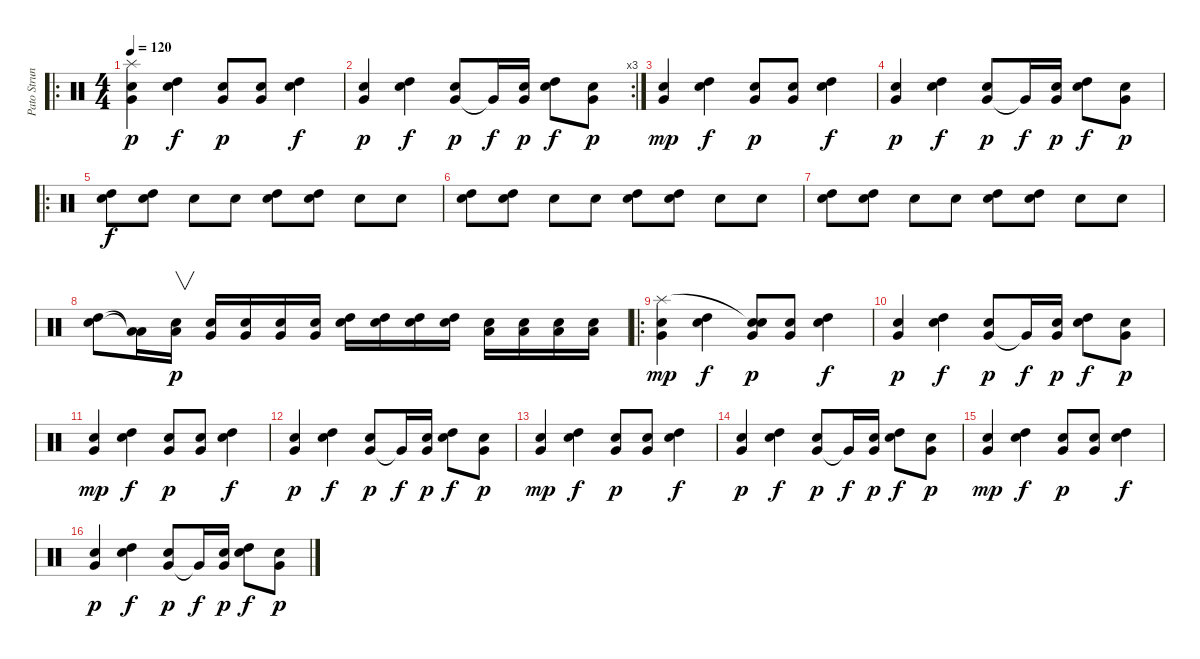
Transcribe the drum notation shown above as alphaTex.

\track ("Pato Strunz" "Pato Strun") {instrument percussion}
\staff {score}
\articulation defaults
\ro
\ts (4 4)
\tempo 120
\clef neutral
\ks c
("Very Low Tom (hit)" "Snare (hit) 2" "Splash (hit)").4{dy p} ("High Tom (hit)" "Snare (hit) 2").4{dy f} ("Very Low Tom (hit)" "Snare (hit) 2").8{dy p} ("Very Low Tom (hit)" "Snare (hit) 2").8 ("High Tom (hit)" "Snare (hit) 2").4{dy f} |
\rc 3
("Very Low Tom (hit)" "Snare (hit) 2").4{dy p} ("High Tom (hit)" "Snare (hit) 2").4{dy f} ("Very Low Tom (hit)" "Snare (hit) 2").8{dy p} "Very Low Tom (hit)"{t}.16{dy f} ("Very Low Tom (hit)" "Snare (hit) 2").16{dy p} ("High Tom (hit)" "Snare (hit) 2").8{dy f} ("Very Low Tom (hit)" "Snare (hit) 2").8{dy p} |
("Very Low Tom (hit)" "Snare (hit) 2").4{dy mp} ("High Tom (hit)" "Snare (hit) 2").4{dy f} ("Very Low Tom (hit)" "Snare (hit) 2").8{dy p} ("Very Low Tom (hit)" "Snare (hit) 2").8 ("High Tom (hit)" "Snare (hit) 2").4{dy f} |
("Very Low Tom (hit)" "Snare (hit) 2").4{dy p} ("High Tom (hit)" "Snare (hit) 2").4{dy f} ("Very Low Tom (hit)" "Snare (hit) 2").8{dy p} "Very Low Tom (hit)"{t}.16{dy f} ("Very Low Tom (hit)" "Snare (hit) 2").16{dy p} ("High Tom (hit)" "Snare (hit) 2").8{dy f} ("Very Low Tom (hit)" "Snare (hit) 2").8{dy p} |
\ro
("High Tom (hit)" "Snare (hit) 2").8{dy f} ("High Tom (hit)" "Snare (hit) 2").8 "Snare (hit)".8 "Snare (hit)".8 ("High Tom (hit)" "Snare (hit) 2").8 ("High Tom (hit)" "Snare (hit) 2").8 "Snare (hit)".8 "Snare (hit)".8 |
("High Tom (hit)" "Snare (hit) 2").8 ("High Tom (hit)" "Snare (hit) 2").8 "Snare (hit)".8 "Snare (hit)".8 ("High Tom (hit)" "Snare (hit) 2").8 ("High Tom (hit)" "Snare (hit) 2").8 "Snare (hit)".8 "Snare (hit)".8 |
("High Tom (hit)" "Snare (hit) 2").8 ("High Tom (hit)" "Snare (hit) 2").8 "Snare (hit)".8 "Snare (hit)".8 ("High Tom (hit)" "Snare (hit) 2").8 ("High Tom (hit)" "Snare (hit) 2").8 "Snare (hit)".8 "Snare (hit)".8 |
("High Tom (hit)" "Snare (hit) 2").8 ("Low Tom (hit)"{t} "Low Tom (hit)"{t}).16 ("Low Tom (hit)" "Snare (hit) 2").16{v dy p} ("Very Low Tom (hit)" "Snare (hit) 2").16 ("Very Low Tom (hit)" "Snare (hit) 2").16 ("Very Low Tom (hit)" "Snare (hit) 2").16 ("Very Low Tom (hit)" "Snare (hit) 2").16 ("High Tom (hit)" "Snare (hit) 2").16 ("High Tom (hit)" "Snare (hit) 2").16 ("High Tom (hit)" "Snare (hit) 2").16 ("High Tom (hit)" "Snare (hit) 2").16 ("Low Tom (hit)" "Snare (hit) 2").16 ("Low Tom (hit)" "Snare (hit) 2").16 ("Low Tom (hit)" "Snare (hit) 2").16 ("Low Tom (hit)" "Snare (hit) 2").16 |
\ro
("Very Low Tom (hit)" "Snare (hit) 2" "Splash (hit)").4{dy mp} ("High Tom (hit)" "Snare (hit) 2").4{dy f} ("Very Low Tom (hit)" "Snare (hit) 2" "Snare (hit)"{t}).8{dy p} ("Very Low Tom (hit)" "Snare (hit) 2").8 ("High Tom (hit)" "Snare (hit) 2").4{dy f} |
("Very Low Tom (hit)" "Snare (hit) 2").4{dy p} ("High Tom (hit)" "Snare (hit) 2").4{dy f} ("Very Low Tom (hit)" "Snare (hit) 2").8{dy p} "Very Low Tom (hit)"{t}.16{dy f} ("Very Low Tom (hit)" "Snare (hit) 2").16{dy p} ("High Tom (hit)" "Snare (hit) 2").8{dy f} ("Very Low Tom (hit)" "Snare (hit) 2").8{dy p} |
("Very Low Tom (hit)" "Snare (hit) 2").4{dy mp} ("High Tom (hit)" "Snare (hit) 2").4{dy f} ("Very Low Tom (hit)" "Snare (hit) 2").8{dy p} ("Very Low Tom (hit)" "Snare (hit) 2").8 ("High Tom (hit)" "Snare (hit) 2").4{dy f} |
("Very Low Tom (hit)" "Snare (hit) 2").4{dy p} ("High Tom (hit)" "Snare (hit) 2").4{dy f} ("Very Low Tom (hit)" "Snare (hit) 2").8{dy p} "Very Low Tom (hit)"{t}.16{dy f} ("Very Low Tom (hit)" "Snare (hit) 2").16{dy p} ("High Tom (hit)" "Snare (hit) 2").8{dy f} ("Very Low Tom (hit)" "Snare (hit) 2").8{dy p} |
("Very Low Tom (hit)" "Snare (hit) 2").4{dy mp} ("High Tom (hit)" "Snare (hit) 2").4{dy f} ("Very Low Tom (hit)" "Snare (hit) 2").8{dy p} ("Very Low Tom (hit)" "Snare (hit) 2").8 ("High Tom (hit)" "Snare (hit) 2").4{dy f} |
("Very Low Tom (hit)" "Snare (hit) 2").4{dy p} ("High Tom (hit)" "Snare (hit) 2").4{dy f} ("Very Low Tom (hit)" "Snare (hit) 2").8{dy p} "Very Low Tom (hit)"{t}.16{dy f} ("Very Low Tom (hit)" "Snare (hit) 2").16{dy p} ("High Tom (hit)" "Snare (hit) 2").8{dy f} ("Very Low Tom (hit)" "Snare (hit) 2").8{dy p} |
("Very Low Tom (hit)" "Snare (hit) 2").4{dy mp} ("High Tom (hit)" "Snare (hit) 2").4{dy f} ("Very Low Tom (hit)" "Snare (hit) 2").8{dy p} ("Very Low Tom (hit)" "Snare (hit) 2").8 ("High Tom (hit)" "Snare (hit) 2").4{dy f} |
("Very Low Tom (hit)" "Snare (hit) 2").4{dy p} ("High Tom (hit)" "Snare (hit) 2").4{dy f} ("Very Low Tom (hit)" "Snare (hit) 2").8{dy p} "Very Low Tom (hit)"{t}.16{dy f} ("Very Low Tom (hit)" "Snare (hit) 2").16{dy p} ("High Tom (hit)" "Snare (hit) 2").8{dy f} ("Very Low Tom (hit)" "Snare (hit) 2").8{dy p}
